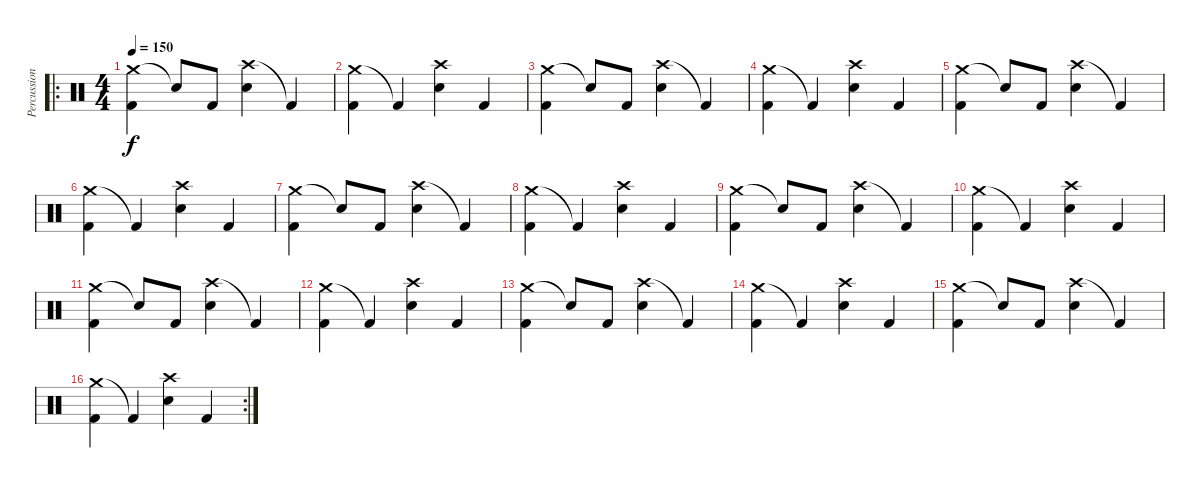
\track ("Percussions" "Percussion") {instrument percussion}
\staff {score}
\articulation defaults
\ro
\ts (4 4)
\tempo 150
\clef neutral
\ks c
("Crash medium (hit)" "Kick (hit) 2").4{dy f} "Snare (hit)"{t}.8 "Kick (hit) 2".8 ("Crash high (hit)" "Snare (hit) 2").4 "Kick (hit) 2"{t}.4 |
("Crash medium (hit)" "Kick (hit) 2").4 "Kick (hit) 2"{t}.4 ("Crash high (hit)" "Snare (hit) 2").4 "Kick (hit) 2".4 |
("Crash medium (hit)" "Kick (hit) 2").4 "Snare (hit)"{t}.8 "Kick (hit) 2".8 ("Crash high (hit)" "Snare (hit) 2").4 "Kick (hit) 2"{t}.4 |
("Crash medium (hit)" "Kick (hit) 2").4 "Kick (hit) 2"{t}.4 ("Crash high (hit)" "Snare (hit) 2").4 "Kick (hit) 2".4 |
("Crash medium (hit)" "Kick (hit) 2").4 "Snare (hit)"{t}.8 "Kick (hit) 2".8 ("Crash high (hit)" "Snare (hit) 2").4 "Kick (hit) 2"{t}.4 |
("Crash medium (hit)" "Kick (hit) 2").4 "Kick (hit) 2"{t}.4 ("Crash high (hit)" "Snare (hit) 2").4 "Kick (hit) 2".4 |
("Crash medium (hit)" "Kick (hit) 2").4 "Snare (hit)"{t}.8 "Kick (hit) 2".8 ("Crash high (hit)" "Snare (hit) 2").4 "Kick (hit) 2"{t}.4 |
("Crash medium (hit)" "Kick (hit) 2").4 "Kick (hit) 2"{t}.4 ("Crash high (hit)" "Snare (hit) 2").4 "Kick (hit) 2".4 |
("Crash medium (hit)" "Kick (hit) 2").4 "Snare (hit)"{t}.8 "Kick (hit) 2".8 ("Crash high (hit)" "Snare (hit) 2").4 "Kick (hit) 2"{t}.4 |
("Crash medium (hit)" "Kick (hit) 2").4 "Kick (hit) 2"{t}.4 ("Crash high (hit)" "Snare (hit) 2").4 "Kick (hit) 2".4 |
("Crash medium (hit)" "Kick (hit) 2").4 "Snare (hit)"{t}.8 "Kick (hit) 2".8 ("Crash high (hit)" "Snare (hit) 2").4 "Kick (hit) 2"{t}.4 |
("Crash medium (hit)" "Kick (hit) 2").4 "Kick (hit) 2"{t}.4 ("Crash high (hit)" "Snare (hit) 2").4 "Kick (hit) 2".4 |
("Crash medium (hit)" "Kick (hit) 2").4 "Snare (hit)"{t}.8 "Kick (hit) 2".8 ("Crash high (hit)" "Snare (hit) 2").4 "Kick (hit) 2"{t}.4 |
("Crash medium (hit)" "Kick (hit) 2").4 "Kick (hit) 2"{t}.4 ("Crash high (hit)" "Snare (hit) 2").4 "Kick (hit) 2".4 |
("Crash medium (hit)" "Kick (hit) 2").4 "Snare (hit)"{t}.8 "Kick (hit) 2".8 ("Crash high (hit)" "Snare (hit) 2").4 "Kick (hit) 2"{t}.4 |
\rc 2
("Crash medium (hit)" "Kick (hit) 2").4 "Kick (hit) 2"{t}.4 ("Crash high (hit)" "Snare (hit) 2").4 "Kick (hit) 2".4
